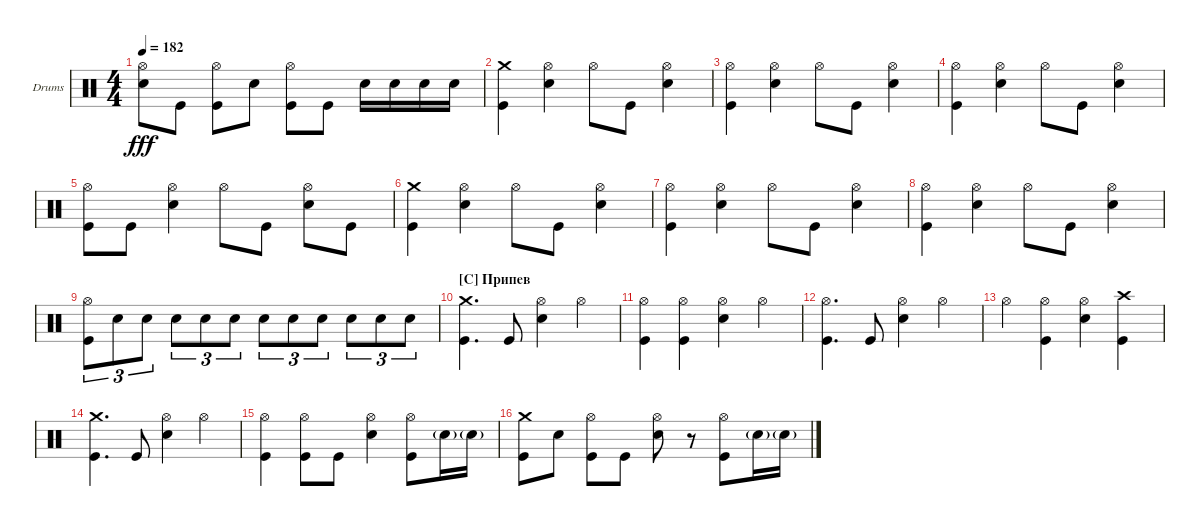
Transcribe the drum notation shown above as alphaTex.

\defaultSystemsLayout 4
\bracketExtendMode groupsimilarinstruments
\firstSystemTrackNameOrientation horizontal
\otherSystemsTrackNameOrientation horizontal
\track ("Drumkit" "Drums") {instrument percussion}
\staff {score}
\articulation defaults
\ts (4 4)
\tempo 182
\clef neutral
\ks c
("Hi-Hat (open)" "Snare (hit) 2").8{dy fff} "Kick (hit)".8 ("Hi-Hat (open)" "Kick (hit)").8 "Snare (hit) 2".8 ("Kick (hit)" "Hi-Hat (open)").8 "Kick (hit)".8 "Snare (hit) 2".16 "Snare (hit) 2".16 "Snare (hit) 2".16 "Snare (hit) 2".16 |
("Kick (hit)" "Crash medium (hit)").4 ("Snare (hit) 2" "Hi-Hat (open)").4 "Hi-Hat (open)".8 "Kick (hit)".8 ("Snare (hit) 2" "Hi-Hat (open)").4 |
("Kick (hit)" "Hi-Hat (open)").4 ("Snare (hit) 2" "Hi-Hat (open)").4 "Hi-Hat (open)".8 "Kick (hit)".8 ("Snare (hit) 2" "Hi-Hat (open)").4 |
("Kick (hit)" "Hi-Hat (open)").4 ("Snare (hit) 2" "Hi-Hat (open)").4 "Hi-Hat (open)".8 "Kick (hit)".8 ("Snare (hit) 2" "Hi-Hat (open)").4 |
("Kick (hit)" "Hi-Hat (open)").8 "Kick (hit)".8 ("Snare (hit) 2" "Hi-Hat (open)").4 "Hi-Hat (open)".8 "Kick (hit)".8 ("Snare (hit) 2" "Hi-Hat (open)").8 "Kick (hit)".8 |
("Kick (hit)" "Crash medium (hit)").4 ("Snare (hit) 2" "Hi-Hat (open)").4 "Hi-Hat (open)".8 "Kick (hit)".8 ("Snare (hit) 2" "Hi-Hat (open)").4 |
("Kick (hit)" "Hi-Hat (open)").4 ("Snare (hit) 2" "Hi-Hat (open)").4 "Hi-Hat (open)".8 "Kick (hit)".8 ("Snare (hit) 2" "Hi-Hat (open)").4 |
("Kick (hit)" "Hi-Hat (open)").4 ("Snare (hit) 2" "Hi-Hat (open)").4 "Hi-Hat (open)".8 "Kick (hit)".8 ("Snare (hit) 2" "Hi-Hat (open)").4 |
("Kick (hit)" "Hi-Hat (open)").8{tu (3 2)} "Snare (hit) 2".8{tu (3 2)} "Snare (hit) 2".8{tu (3 2)} "Snare (hit) 2".8{tu (3 2)} "Snare (hit) 2".8{tu (3 2)} "Snare (hit) 2".8{tu (3 2)} "Snare (hit) 2".8{tu (3 2)} "Snare (hit) 2".8{tu (3 2)} "Snare (hit) 2".8{tu (3 2)} "Snare (hit) 2".8{tu (3 2)} "Snare (hit) 2".8{tu (3 2)} "Snare (hit) 2".8{tu (3 2)} |
\section ("C" "Припев")
("Kick (hit)" "Crash medium (hit)").4{d} "Kick (hit)".8 ("Snare (hit) 2" "Hi-Hat (open)").4 "Hi-Hat (open)".4 |
("Kick (hit)" "Hi-Hat (open)").4 ("Kick (hit)" "Hi-Hat (open)").4 ("Snare (hit) 2" "Hi-Hat (open)").4 "Hi-Hat (open)".4 |
("Kick (hit)" "Hi-Hat (open)").4{d} "Kick (hit)".8 ("Snare (hit) 2" "Hi-Hat (open)").4 "Hi-Hat (open)".4 |
"Hi-Hat (open)".4 ("Kick (hit)" "Hi-Hat (open)").4 ("Snare (hit) 2" "Hi-Hat (open)").4 ("Kick (hit)" "Crash high (hit)").4 |
("Kick (hit)" "Crash medium (hit)").4{d} "Kick (hit)".8 ("Snare (hit) 2" "Hi-Hat (open)").4 "Hi-Hat (open)".4 |
("Kick (hit)" "Hi-Hat (open)").4 ("Kick (hit)" "Hi-Hat (open)").8 "Kick (hit)".8 ("Snare (hit) 2" "Hi-Hat (open)").4 ("Hi-Hat (open)" "Kick (hit)").8 "Snare (hit) 2"{g}.16 "Snare (hit) 2"{g}.16 |
("Kick (hit)" "Crash medium (hit)").8 "Snare (hit) 2".8 ("Hi-Hat (open)" "Kick (hit)").8 "Kick (hit)".8 ("Snare (hit) 2" "Hi-Hat (open)").8 r.8 ("Kick (hit)" "Hi-Hat (open)").8 "Snare (hit) 2"{g}.16 "Snare (hit) 2"{g}.16
